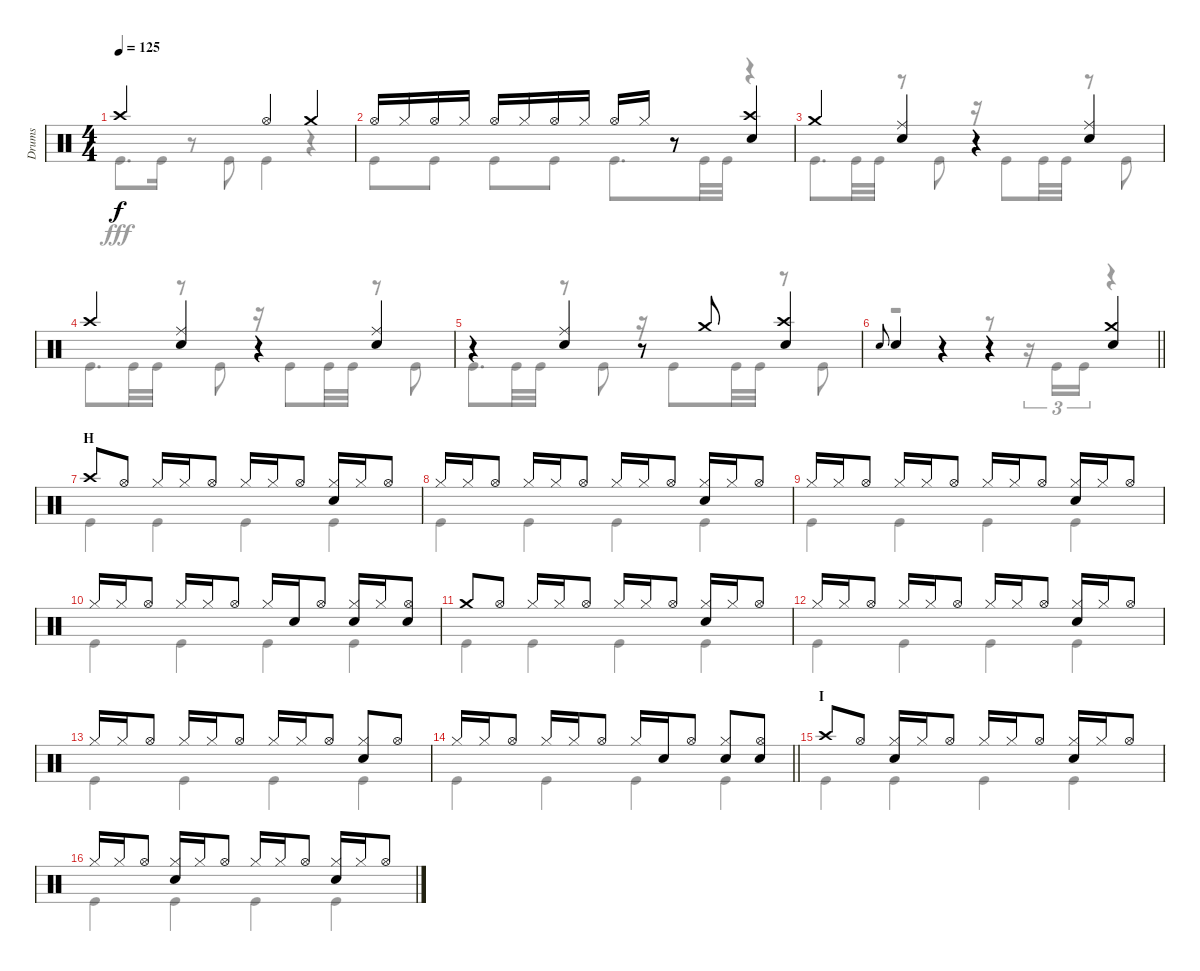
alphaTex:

\track ("Drums" "Drums") {instrument percussion}
\staff {score}
\articulation defaults
\voice
\ts (4 4)
\tempo 125
\clef neutral
\ks c "Crash high (hit)".2{dy f} "Hi-Hat (open)".4 "Crash medium (hit)".4
|
"Hi-Hat (open)".16 "Hi-Hat (closed)".16 "Hi-Hat (open)".16 "Hi-Hat (closed)".16 "Hi-Hat (open)".16 "Hi-Hat (closed)".16 "Hi-Hat (open)".16 "Hi-Hat (closed)".16 "Hi-Hat (open)".16 "Hi-Hat (closed)".16 r.8 ("Crash high (hit)" "Snare (hit) 2").4 |
"Crash medium (hit)".4 ("Ride (middle)" "Snare (hit) 2").4 r.4 ("Ride (middle)" "Snare (hit) 2").4 |
"Crash high (hit)".4 ("Ride (middle)" "Snare (hit) 2").4 r.4 ("Ride (middle)" "Snare (hit) 2").4 |
r.4 ("Ride (middle)" "Snare (hit) 2").4 r.8 "Crash medium (hit)".8 ("Crash high (hit)" "Snare (hit) 2").4 |
\barLineRight lightlight "Snare (hit) 2".8{gr onbeat} "Snare (hit) 2".4
r.4 r.4 ("Crash medium (hit)" "Snare (hit) 2").4 |
\section ("" "H")
"Crash high (hit)".8 "Hi-Hat (open)".8 "Hi-Hat (closed)".16 "Hi-Hat (closed)".16 "Hi-Hat (open)".8 "Hi-Hat (closed)".16 "Hi-Hat (closed)".16 "Hi-Hat (open)".8 ("Hi-Hat (closed)" "Snare (hit) 2").16 "Hi-Hat (closed)".16 "Hi-Hat (open)".8 |
"Hi-Hat (closed)".16 "Hi-Hat (closed)".16 "Hi-Hat (open)".8 "Hi-Hat (closed)".16 "Hi-Hat (closed)".16 "Hi-Hat (open)".8 "Hi-Hat (closed)".16 "Hi-Hat (closed)".16 "Hi-Hat (open)".8 ("Hi-Hat (closed)" "Snare (hit) 2").16 "Hi-Hat (closed)".16 "Hi-Hat (open)".8 |
"Hi-Hat (closed)".16 "Hi-Hat (closed)".16 "Hi-Hat (open)".8 "Hi-Hat (closed)".16 "Hi-Hat (closed)".16 "Hi-Hat (open)".8 "Hi-Hat (closed)".16 "Hi-Hat (closed)".16 "Hi-Hat (open)".8 ("Hi-Hat (closed)" "Snare (hit) 2").16 "Hi-Hat (closed)".16 "Hi-Hat (open)".8 |
"Hi-Hat (closed)".16 "Hi-Hat (closed)".16 "Hi-Hat (open)".8 "Hi-Hat (closed)".16 "Hi-Hat (closed)".16 "Hi-Hat (open)".8 "Hi-Hat (closed)".16 "Snare (hit) 2".16 "Hi-Hat (open)".8 ("Hi-Hat (closed)" "Snare (hit) 2").16 "Hi-Hat (closed)".16 ("Hi-Hat (open)" "Snare (hit) 2").8 |
"Crash medium (hit)".8 "Hi-Hat (open)".8 "Hi-Hat (closed)".16 "Hi-Hat (closed)".16 "Hi-Hat (open)".8 "Hi-Hat (closed)".16 "Hi-Hat (closed)".16 "Hi-Hat (open)".8 ("Hi-Hat (closed)" "Snare (hit) 2").16 "Hi-Hat (closed)".16 "Hi-Hat (open)".8 |
"Hi-Hat (closed)".16 "Hi-Hat (closed)".16 "Hi-Hat (open)".8 "Hi-Hat (closed)".16 "Hi-Hat (closed)".16 "Hi-Hat (open)".8 "Hi-Hat (closed)".16 "Hi-Hat (closed)".16 "Hi-Hat (open)".8 ("Hi-Hat (closed)" "Snare (hit) 2").16 "Hi-Hat (closed)".16 "Hi-Hat (open)".8 |
"Hi-Hat (closed)".16 "Hi-Hat (closed)".16 "Hi-Hat (open)".8 "Hi-Hat (closed)".16 "Hi-Hat (closed)".16 "Hi-Hat (open)".8 "Hi-Hat (closed)".16 "Hi-Hat (closed)".16 "Hi-Hat (open)".8 ("Hi-Hat (closed)" "Snare (hit) 2").8 "Hi-Hat (open)".8 |
\barLineRight lightlight "Hi-Hat (closed)".16 "Hi-Hat (closed)".16 "Hi-Hat (open)".8 "Hi-Hat (closed)".16 "Hi-Hat (closed)".16 "Hi-Hat (open)".8 "Hi-Hat (closed)".16 "Snare (hit) 2".16 "Hi-Hat (open)".8
("Hi-Hat (closed)" "Snare (hit) 2").8 ("Hi-Hat (open)" "Snare (hit) 2").8 |
\section ("" "I")
"Crash high (hit)".8 "Hi-Hat (open)".8 ("Hi-Hat (closed)" "Snare (hit) 2").16 "Hi-Hat (closed)".16 "Hi-Hat (open)".8 "Hi-Hat (closed)".16 "Hi-Hat (closed)".16 "Hi-Hat (open)".8 ("Hi-Hat (closed)" "Snare (hit) 2").16 "Hi-Hat (closed)".16 "Hi-Hat (open)".8 |
"Hi-Hat (closed)".16 "Hi-Hat (closed)".16 "Hi-Hat (open)".8 ("Hi-Hat (closed)" "Snare (hit) 2").16 "Hi-Hat (closed)".16 "Hi-Hat (open)".8 "Hi-Hat (closed)".16 "Hi-Hat (closed)".16 "Hi-Hat (open)".8 ("Hi-Hat (closed)" "Snare (hit) 2").16 "Hi-Hat (closed)".16 "Hi-Hat (open)".8
\voice
\clef neutral
\ottava regular
\simile none
\ks c "Kick (hit)".8{d dy fff} "Kick (hit)".16
r.8 "Kick (hit)".8 "Kick (hit)".4 r.4 |
"Kick (hit)".8 "Kick (hit)".8 "Kick (hit)".8 "Kick (hit)".8 "Kick (hit)".8{d} "Kick (hit)".32 "Kick (hit)".32 r.4 |
"Kick (hit)".8{d} "Kick (hit)".32 "Kick (hit)".32 r.8 "Kick (hit)".8 r.16 "Kick (hit)".8 "Kick (hit)".32 "Kick (hit)".32 r.8 "Kick (hit)".8 |
"Kick (hit)".8{d} "Kick (hit)".32 "Kick (hit)".32 r.8 "Kick (hit)".8 r.16 "Kick (hit)".8 "Kick (hit)".32 "Kick (hit)".32 r.8 "Kick (hit)".8 |
"Kick (hit)".8{d} "Kick (hit)".32 "Kick (hit)".32 r.8 "Kick (hit)".8 r.16 "Kick (hit)".8 "Kick (hit)".32 "Kick (hit)".32 r.8 "Kick (hit)".8 |
\barLineRight lightlight
r.2 r.8 r.16{tu (3 2)} "Kick (hit)".16{tu (3 2)} "Kick (hit)".16{tu (3 2)} r.4 |
"Kick (hit)".4 "Kick (hit)".4 "Kick (hit)".4 "Kick (hit)".4 |
"Kick (hit)".4 "Kick (hit)".4 "Kick (hit)".4 "Kick (hit)".4 |
"Kick (hit)".4 "Kick (hit)".4 "Kick (hit)".4 "Kick (hit)".4 |
"Kick (hit)".4 "Kick (hit)".4 "Kick (hit)".4 "Kick (hit)".4 |
"Kick (hit)".4 "Kick (hit)".4 "Kick (hit)".4 "Kick (hit)".4 |
"Kick (hit)".4 "Kick (hit)".4 "Kick (hit)".4 "Kick (hit)".4 |
"Kick (hit)".4 "Kick (hit)".4 "Kick (hit)".4 "Kick (hit)".4 |
\barLineRight lightlight "Kick (hit)".4 "Kick (hit)".4 "Kick (hit)".4 "Kick (hit)".4
|
"Kick (hit)".4 "Kick (hit)".4 "Kick (hit)".4 "Kick (hit)".4 |
"Kick (hit)".4 "Kick (hit)".4 "Kick (hit)".4 "Kick (hit)".4
